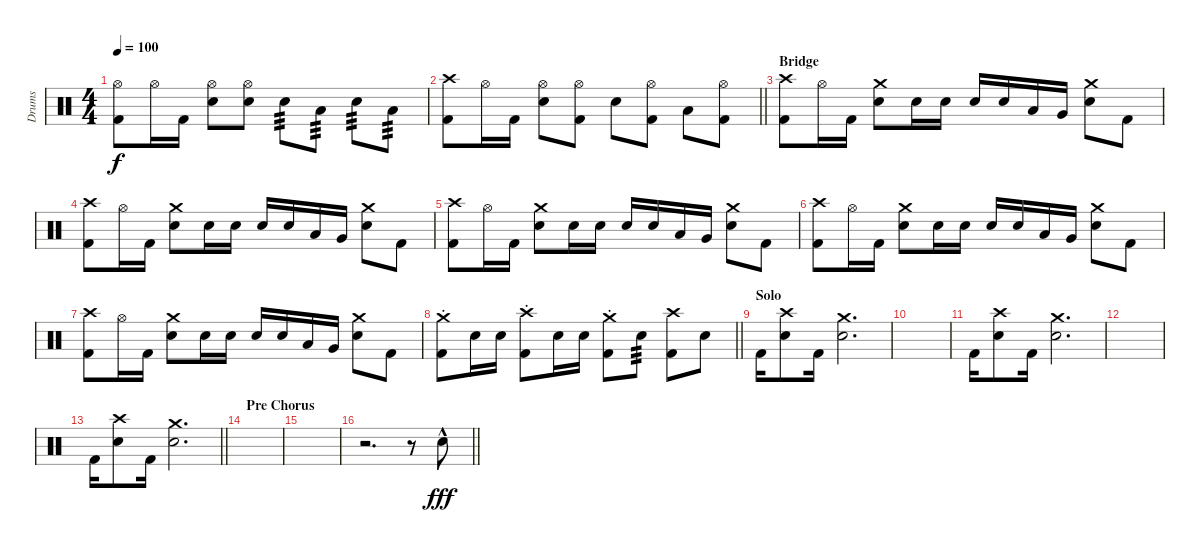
\track ("Drums" "Drums") {instrument percussion}
\staff {score}
\articulation defaults
\ts (4 4)
\tempo 100
\clef neutral
\ks c
("Hi-Hat (open)" "Kick (hit) 2").8{dy f} "Hi-Hat (open)".16 "Kick (hit) 2".16 ("Hi-Hat (open)" "Snare (hit) 2").8 ("Hi-Hat (open)" "Snare (hit) 2").8 "Snare (hit) 2".8{tp 3} "Low Tom (hit)".8{tp 3} "Snare (hit) 2".8{tp 3} "Low Tom (hit)".8{tp 3} |
\barLineRight lightlight
("Crash high (hit)" "Kick (hit) 2").8 "Hi-Hat (open)".16 "Kick (hit) 2".16 ("Hi-Hat (open)" "Snare (hit) 2").8 ("Hi-Hat (open)" "Kick (hit) 2").8 "Snare (hit) 2".8 ("Hi-Hat (open)" "Kick (hit) 2").8 "Low Tom (hit)".8 ("Hi-Hat (open)" "Kick (hit) 2").8 |
\section ("" "Bridge")
("Crash high (hit)" "Kick (hit) 2").8 "Hi-Hat (open)".16 "Kick (hit) 2".16 ("Crash medium (hit)" "Snare (hit) 2").8 "Snare (hit) 2".16 "Snare (hit) 2".16 "Snare (hit) 2".16 "Snare (hit) 2".16 "Low Tom (hit)".16 "Very Low Tom (hit)".16 ("Crash medium (hit)" "Snare (hit) 2").8 "Kick (hit) 2".8 |
("Crash high (hit)" "Kick (hit) 2").8 "Hi-Hat (open)".16 "Kick (hit) 2".16 ("Crash medium (hit)" "Snare (hit) 2").8 "Snare (hit) 2".16 "Snare (hit) 2".16 "Snare (hit) 2".16 "Snare (hit) 2".16 "Low Tom (hit)".16 "Very Low Tom (hit)".16 ("Crash medium (hit)" "Snare (hit) 2").8 "Kick (hit) 2".8 |
("Crash high (hit)" "Kick (hit) 2").8 "Hi-Hat (open)".16 "Kick (hit) 2".16 ("Crash medium (hit)" "Snare (hit) 2").8 "Snare (hit) 2".16 "Snare (hit) 2".16 "Snare (hit) 2".16 "Snare (hit) 2".16 "Low Tom (hit)".16 "Very Low Tom (hit)".16 ("Crash medium (hit)" "Snare (hit) 2").8 "Kick (hit) 2".8 |
("Crash high (hit)" "Kick (hit) 2").8 "Hi-Hat (open)".16 "Kick (hit) 2".16 ("Crash medium (hit)" "Snare (hit) 2").8 "Snare (hit) 2".16 "Snare (hit) 2".16 "Snare (hit) 2".16 "Snare (hit) 2".16 "Low Tom (hit)".16 "Very Low Tom (hit)".16 ("Crash medium (hit)" "Snare (hit) 2").8 "Kick (hit) 2".8 |
("Crash high (hit)" "Kick (hit) 2").8 "Hi-Hat (open)".16 "Kick (hit) 2".16 ("Crash medium (hit)" "Snare (hit) 2").8 "Snare (hit) 2".16 "Snare (hit) 2".16 "Snare (hit) 2".16 "Snare (hit) 2".16 "Low Tom (hit)".16 "Very Low Tom (hit)".16 ("Crash medium (hit)" "Snare (hit) 2").8 "Kick (hit) 2".8 |
\barLineRight lightlight
("Crash medium (hit)"{st} "Kick (hit) 2").8 "Snare (hit) 2".16 "Snare (hit) 2".16 ("Crash high (hit)"{st} "Kick (hit) 2").8 "Snare (hit) 2".16 "Snare (hit) 2".16 ("Crash medium (hit)"{st} "Kick (hit) 2").8 "Snare (hit) 2".8{tp 3} ("Crash high (hit)" "Kick (hit) 2").8 "Snare (hit) 2".8 |
\section ("" "Solo")
"Kick (hit) 2".16 ("Crash high (hit)" "Snare (hit) 2").8 "Kick (hit) 2".16 ("Crash medium (hit)" "Snare (hit) 2").2{d} |
|
"Kick (hit) 2".16 ("Crash high (hit)" "Snare (hit) 2").8 "Kick (hit) 2".16 ("Crash medium (hit)" "Snare (hit) 2").2{d} |
|
\barLineRight lightlight "Kick (hit) 2".16
("Crash high (hit)" "Snare (hit) 2").8 "Kick (hit) 2".16 ("Crash medium (hit)" "Snare (hit) 2").2{d} |
\section ("" "Pre Chorus")
|
|
\barLineRight lightlight
r.2{d} r.8 "Snare (hit) 2"{hac}.8{dy fff}
